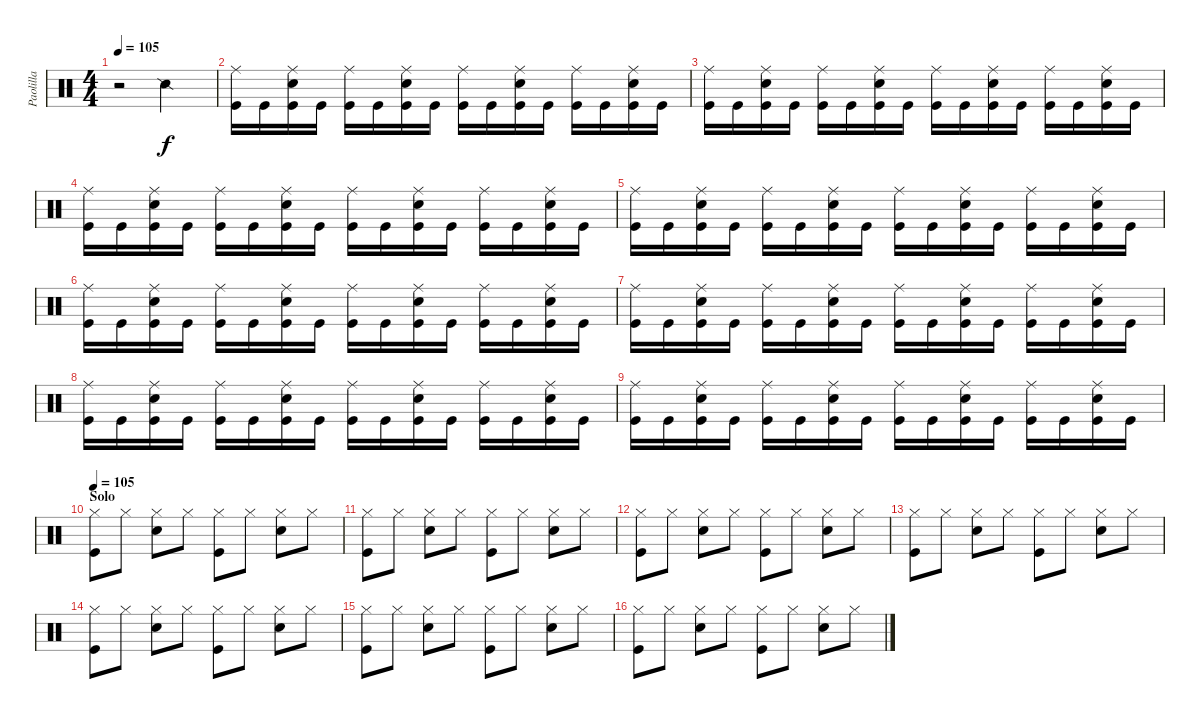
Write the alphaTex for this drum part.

\track ("Paolilla" "Paolilla") {instrument percussion}
\staff {score}
\articulation defaults
\ts (4 4)
\tempo 105
\clef neutral
\ks c
r.2{dy f} "Snare (side stick) 2".2 |
("Ride (middle)" "Kick (hit)").16 "Kick (hit)".16 ("Ride (middle)" "Snare (hit) 2" "Kick (hit)").16 "Kick (hit)".16 ("Ride (middle)" "Kick (hit)").16 "Kick (hit)".16 ("Ride (middle)" "Snare (hit) 2" "Kick (hit)").16 "Kick (hit)".16 ("Ride (middle)" "Kick (hit)").16 "Kick (hit)".16 ("Ride (middle)" "Snare (hit) 2" "Kick (hit)").16 "Kick (hit)".16 ("Ride (middle)" "Kick (hit)").16 "Kick (hit)".16 ("Ride (middle)" "Snare (hit) 2" "Kick (hit)").16 "Kick (hit)".16 |
("Ride (middle)" "Kick (hit)").16 "Kick (hit)".16 ("Ride (middle)" "Snare (hit) 2" "Kick (hit)").16 "Kick (hit)".16 ("Ride (middle)" "Kick (hit)").16 "Kick (hit)".16 ("Ride (middle)" "Snare (hit) 2" "Kick (hit)").16 "Kick (hit)".16 ("Ride (middle)" "Kick (hit)").16 "Kick (hit)".16 ("Ride (middle)" "Snare (hit) 2" "Kick (hit)").16 "Kick (hit)".16 ("Ride (middle)" "Kick (hit)").16 "Kick (hit)".16 ("Ride (middle)" "Snare (hit) 2" "Kick (hit)").16 "Kick (hit)".16 |
("Ride (middle)" "Kick (hit)").16 "Kick (hit)".16 ("Ride (middle)" "Snare (hit) 2" "Kick (hit)").16 "Kick (hit)".16 ("Ride (middle)" "Kick (hit)").16 "Kick (hit)".16 ("Ride (middle)" "Snare (hit) 2" "Kick (hit)").16 "Kick (hit)".16 ("Ride (middle)" "Kick (hit)").16 "Kick (hit)".16 ("Ride (middle)" "Snare (hit) 2" "Kick (hit)").16 "Kick (hit)".16 ("Ride (middle)" "Kick (hit)").16 "Kick (hit)".16 ("Ride (middle)" "Snare (hit) 2" "Kick (hit)").16 "Kick (hit)".16 |
("Ride (middle)" "Kick (hit)").16 "Kick (hit)".16 ("Ride (middle)" "Snare (hit) 2" "Kick (hit)").16 "Kick (hit)".16 ("Ride (middle)" "Kick (hit)").16 "Kick (hit)".16 ("Ride (middle)" "Snare (hit) 2" "Kick (hit)").16 "Kick (hit)".16 ("Ride (middle)" "Kick (hit)").16 "Kick (hit)".16 ("Ride (middle)" "Snare (hit) 2" "Kick (hit)").16 "Kick (hit)".16 ("Ride (middle)" "Kick (hit)").16 "Kick (hit)".16 ("Ride (middle)" "Snare (hit) 2" "Kick (hit)").16 "Kick (hit)".16 |
("Ride (middle)" "Kick (hit)").16 "Kick (hit)".16 ("Ride (middle)" "Snare (hit) 2" "Kick (hit)").16 "Kick (hit)".16 ("Ride (middle)" "Kick (hit)").16 "Kick (hit)".16 ("Ride (middle)" "Snare (hit) 2" "Kick (hit)").16 "Kick (hit)".16 ("Ride (middle)" "Kick (hit)").16 "Kick (hit)".16 ("Ride (middle)" "Snare (hit) 2" "Kick (hit)").16 "Kick (hit)".16 ("Ride (middle)" "Kick (hit)").16 "Kick (hit)".16 ("Ride (middle)" "Snare (hit) 2" "Kick (hit)").16 "Kick (hit)".16 |
("Ride (middle)" "Kick (hit)").16 "Kick (hit)".16 ("Ride (middle)" "Snare (hit) 2" "Kick (hit)").16 "Kick (hit)".16 ("Ride (middle)" "Kick (hit)").16 "Kick (hit)".16 ("Ride (middle)" "Snare (hit) 2" "Kick (hit)").16 "Kick (hit)".16 ("Ride (middle)" "Kick (hit)").16 "Kick (hit)".16 ("Ride (middle)" "Snare (hit) 2" "Kick (hit)").16 "Kick (hit)".16 ("Ride (middle)" "Kick (hit)").16 "Kick (hit)".16 ("Ride (middle)" "Snare (hit) 2" "Kick (hit)").16 "Kick (hit)".16 |
("Ride (middle)" "Kick (hit)").16 "Kick (hit)".16 ("Ride (middle)" "Snare (hit) 2" "Kick (hit)").16 "Kick (hit)".16 ("Ride (middle)" "Kick (hit)").16 "Kick (hit)".16 ("Ride (middle)" "Snare (hit) 2" "Kick (hit)").16 "Kick (hit)".16 ("Ride (middle)" "Kick (hit)").16 "Kick (hit)".16 ("Ride (middle)" "Snare (hit) 2" "Kick (hit)").16 "Kick (hit)".16 ("Ride (middle)" "Kick (hit)").16 "Kick (hit)".16 ("Ride (middle)" "Snare (hit) 2" "Kick (hit)").16 "Kick (hit)".16 |
("Ride (middle)" "Kick (hit)").16 "Kick (hit)".16 ("Ride (middle)" "Snare (hit) 2" "Kick (hit)").16 "Kick (hit)".16 ("Ride (middle)" "Kick (hit)").16 "Kick (hit)".16 ("Ride (middle)" "Snare (hit) 2" "Kick (hit)").16 "Kick (hit)".16 ("Ride (middle)" "Kick (hit)").16 "Kick (hit)".16 ("Ride (middle)" "Snare (hit) 2" "Kick (hit)").16 "Kick (hit)".16 ("Ride (middle)" "Kick (hit)").16 "Kick (hit)".16 ("Ride (middle)" "Snare (hit) 2" "Kick (hit)").16 "Kick (hit)".16 |
\section ("" "Solo")
\tempo 105
("Hi-Hat (closed)" "Kick (hit)").8 "Hi-Hat (closed)".8 ("Hi-Hat (closed)" "Snare (hit) 2").8 "Hi-Hat (closed)".8 ("Hi-Hat (closed)" "Kick (hit)").8 "Hi-Hat (closed)".8 ("Hi-Hat (closed)" "Snare (hit) 2").8 "Hi-Hat (closed)".8 |
("Hi-Hat (closed)" "Kick (hit)").8 "Hi-Hat (closed)".8 ("Hi-Hat (closed)" "Snare (hit) 2").8 "Hi-Hat (closed)".8 ("Hi-Hat (closed)" "Kick (hit)").8 "Hi-Hat (closed)".8 ("Hi-Hat (closed)" "Snare (hit) 2").8 "Hi-Hat (closed)".8 |
("Hi-Hat (closed)" "Kick (hit)").8 "Hi-Hat (closed)".8 ("Hi-Hat (closed)" "Snare (hit) 2").8 "Hi-Hat (closed)".8 ("Hi-Hat (closed)" "Kick (hit)").8 "Hi-Hat (closed)".8 ("Hi-Hat (closed)" "Snare (hit) 2").8 "Hi-Hat (closed)".8 |
("Hi-Hat (closed)" "Kick (hit)").8 "Hi-Hat (closed)".8 ("Hi-Hat (closed)" "Snare (hit) 2").8 "Hi-Hat (closed)".8 ("Hi-Hat (closed)" "Kick (hit)").8 "Hi-Hat (closed)".8 ("Hi-Hat (closed)" "Snare (hit) 2").8 "Hi-Hat (closed)".8 |
("Hi-Hat (closed)" "Kick (hit)").8 "Hi-Hat (closed)".8 ("Hi-Hat (closed)" "Snare (hit) 2").8 "Hi-Hat (closed)".8 ("Hi-Hat (closed)" "Kick (hit)").8 "Hi-Hat (closed)".8 ("Hi-Hat (closed)" "Snare (hit) 2").8 "Hi-Hat (closed)".8 |
("Hi-Hat (closed)" "Kick (hit)").8 "Hi-Hat (closed)".8 ("Hi-Hat (closed)" "Snare (hit) 2").8 "Hi-Hat (closed)".8 ("Hi-Hat (closed)" "Kick (hit)").8 "Hi-Hat (closed)".8 ("Hi-Hat (closed)" "Snare (hit) 2").8 "Hi-Hat (closed)".8 |
("Hi-Hat (closed)" "Kick (hit)").8 "Hi-Hat (closed)".8 ("Hi-Hat (closed)" "Snare (hit) 2").8 "Hi-Hat (closed)".8 ("Hi-Hat (closed)" "Kick (hit)").8 "Hi-Hat (closed)".8 ("Hi-Hat (closed)" "Snare (hit) 2").8 "Hi-Hat (closed)".8
